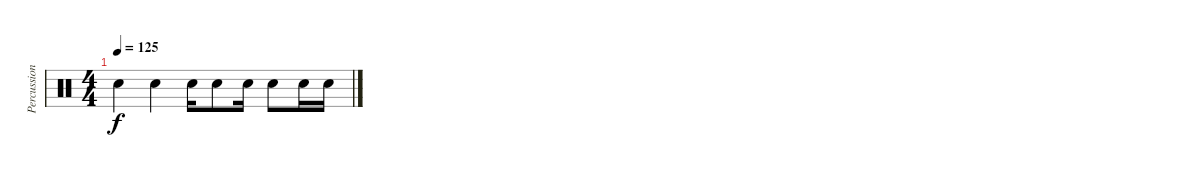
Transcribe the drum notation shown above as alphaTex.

\track ("Percussion" "Percussion") {instrument percussion}
\staff {score}
\articulation defaults
\ts (4 4)
\tempo 125
\clef neutral
\ks c "Snare (hit) 2".4{dy f} "Electric Snare (hit)".4 "Snare (hit) 2".16 "Electric Snare (hit)".8 "Electric Snare (hit)".16 "Electric Snare (hit)".8 "Electric Snare (hit)".16 "Electric Snare (hit)".16
